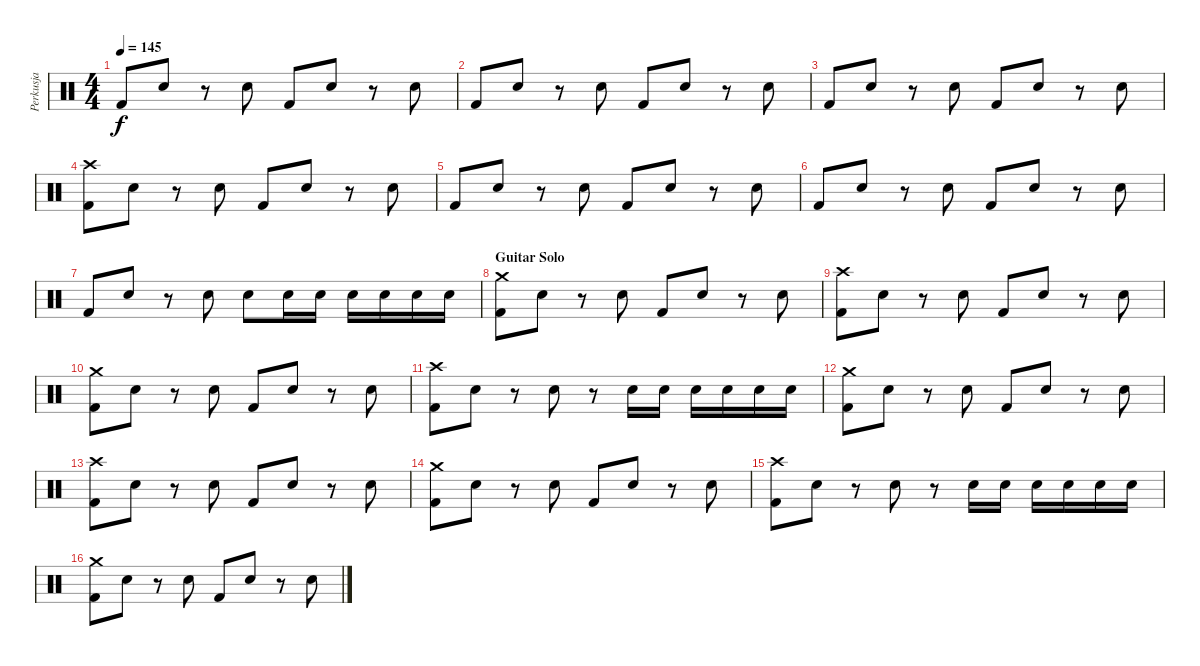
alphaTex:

\track ("Perkusja" "Perkusja") {instrument percussion}
\staff {score}
\articulation defaults
\ts (4 4)
\tempo 145
\clef neutral
\ks c "Kick (hit) 2".8{dy f} "Electric Snare (hit)".8
r.8 "Electric Snare (hit)".8 "Kick (hit) 2".8 "Electric Snare (hit)".8 r.8 "Electric Snare (hit)".8 |
"Kick (hit) 2".8 "Electric Snare (hit)".8 r.8 "Electric Snare (hit)".8 "Kick (hit) 2".8 "Electric Snare (hit)".8 r.8 "Electric Snare (hit)".8 |
"Kick (hit) 2".8 "Electric Snare (hit)".8 r.8 "Electric Snare (hit)".8 "Kick (hit) 2".8 "Electric Snare (hit)".8 r.8 "Electric Snare (hit)".8 |
("Crash high (hit)" "Kick (hit) 2").8 "Electric Snare (hit)".8 r.8 "Electric Snare (hit)".8 "Kick (hit) 2".8 "Electric Snare (hit)".8 r.8 "Electric Snare (hit)".8 |
"Kick (hit) 2".8 "Electric Snare (hit)".8 r.8 "Electric Snare (hit)".8 "Kick (hit) 2".8 "Electric Snare (hit)".8 r.8 "Electric Snare (hit)".8 |
"Kick (hit) 2".8 "Electric Snare (hit)".8 r.8 "Electric Snare (hit)".8 "Kick (hit) 2".8 "Electric Snare (hit)".8 r.8 "Electric Snare (hit)".8 |
"Kick (hit) 2".8 "Electric Snare (hit)".8 r.8 "Electric Snare (hit)".8 "Electric Snare (hit)".8 "Electric Snare (hit)".16 "Electric Snare (hit)".16 "Electric Snare (hit)".16 "Electric Snare (hit)".16 "Electric Snare (hit)".16 "Electric Snare (hit)".16 |
\section ("" "Guitar Solo")
("Crash medium (hit)" "Kick (hit) 2").8 "Electric Snare (hit)".8 r.8 "Electric Snare (hit)".8 "Kick (hit) 2".8 "Electric Snare (hit)".8 r.8 "Electric Snare (hit)".8 |
("Crash high (hit)" "Kick (hit) 2").8 "Electric Snare (hit)".8 r.8 "Electric Snare (hit)".8 "Kick (hit) 2".8 "Electric Snare (hit)".8 r.8 "Electric Snare (hit)".8 |
("Crash medium (hit)" "Kick (hit) 2").8 "Electric Snare (hit)".8 r.8 "Electric Snare (hit)".8 "Kick (hit) 2".8 "Electric Snare (hit)".8 r.8 "Electric Snare (hit)".8 |
("Crash high (hit)" "Kick (hit) 2").8 "Electric Snare (hit)".8 r.8 "Electric Snare (hit)".8 r.8 "Electric Snare (hit)".16 "Electric Snare (hit)".16 "Electric Snare (hit)".16 "Electric Snare (hit)".16 "Electric Snare (hit)".16 "Electric Snare (hit)".16 |
("Crash medium (hit)" "Kick (hit) 2").8 "Electric Snare (hit)".8 r.8 "Electric Snare (hit)".8 "Kick (hit) 2".8 "Electric Snare (hit)".8 r.8 "Electric Snare (hit)".8 |
("Crash high (hit)" "Kick (hit) 2").8 "Electric Snare (hit)".8 r.8 "Electric Snare (hit)".8 "Kick (hit) 2".8 "Electric Snare (hit)".8 r.8 "Electric Snare (hit)".8 |
("Crash medium (hit)" "Kick (hit) 2").8 "Electric Snare (hit)".8 r.8 "Electric Snare (hit)".8 "Kick (hit) 2".8 "Electric Snare (hit)".8 r.8 "Electric Snare (hit)".8 |
("Crash high (hit)" "Kick (hit) 2").8 "Electric Snare (hit)".8 r.8 "Electric Snare (hit)".8 r.8 "Electric Snare (hit)".16 "Electric Snare (hit)".16 "Electric Snare (hit)".16 "Electric Snare (hit)".16 "Electric Snare (hit)".16 "Electric Snare (hit)".16 |
("Crash medium (hit)" "Kick (hit) 2").8 "Electric Snare (hit)".8 r.8 "Electric Snare (hit)".8 "Kick (hit) 2".8 "Electric Snare (hit)".8 r.8 "Electric Snare (hit)".8
